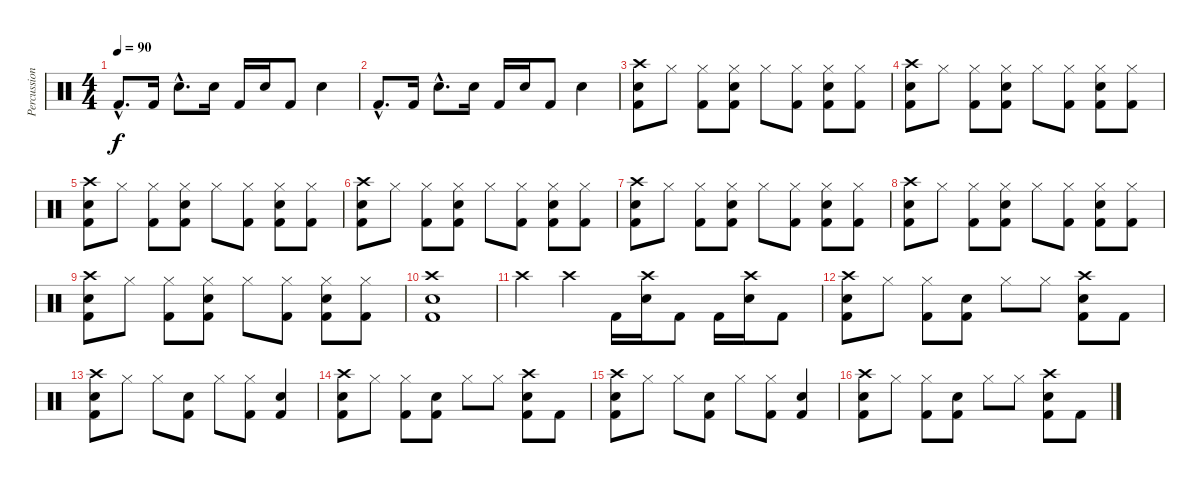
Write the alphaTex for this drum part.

\track ("Percussion" "Percussion") {instrument percussion}
\staff {score}
\articulation defaults
\ts (4 4)
\tempo 90
\clef neutral
\ks c "Kick (hit) 2"{hac}.8{d dy f} "Kick (hit) 2".16 "Snare (hit) 2"{hac}.8{d} "Snare (hit) 2".16 "Kick (hit) 2".16 "Snare (hit) 2".16 "Kick (hit) 2".8 "Snare (hit) 2".4
|
"Kick (hit) 2"{hac}.8{d} "Kick (hit) 2".16 "Snare (hit) 2"{hac}.8{d} "Snare (hit) 2".16 "Kick (hit) 2".16 "Snare (hit) 2".16 "Kick (hit) 2".8 "Snare (hit) 2".4 |
("Snare (hit) 2" "Crash high (hit)" "Kick (hit) 2").8 "Hi-Hat (closed)".8 ("Hi-Hat (closed)" "Kick (hit) 2").8 ("Hi-Hat (closed)" "Snare (hit) 2" "Kick (hit) 2").8 "Hi-Hat (closed)".8 ("Hi-Hat (closed)" "Kick (hit) 2").8 ("Hi-Hat (closed)" "Snare (hit) 2" "Kick (hit) 2").8 ("Hi-Hat (closed)" "Kick (hit) 2").8 |
("Snare (hit) 2" "Crash high (hit)" "Kick (hit) 2").8 "Hi-Hat (closed)".8 ("Hi-Hat (closed)" "Kick (hit) 2").8 ("Hi-Hat (closed)" "Snare (hit) 2" "Kick (hit) 2").8 "Hi-Hat (closed)".8 ("Hi-Hat (closed)" "Kick (hit) 2").8 ("Hi-Hat (closed)" "Snare (hit) 2" "Kick (hit) 2").8 ("Hi-Hat (closed)" "Kick (hit) 2").8 |
("Snare (hit) 2" "Crash high (hit)" "Kick (hit) 2").8 "Hi-Hat (closed)".8 ("Hi-Hat (closed)" "Kick (hit) 2").8 ("Hi-Hat (closed)" "Snare (hit) 2" "Kick (hit) 2").8 "Hi-Hat (closed)".8 ("Hi-Hat (closed)" "Kick (hit) 2").8 ("Hi-Hat (closed)" "Snare (hit) 2" "Kick (hit) 2").8 ("Hi-Hat (closed)" "Kick (hit) 2").8 |
("Snare (hit) 2" "Crash high (hit)" "Kick (hit) 2").8 "Hi-Hat (closed)".8 ("Hi-Hat (closed)" "Kick (hit) 2").8 ("Hi-Hat (closed)" "Snare (hit) 2" "Kick (hit) 2").8 "Hi-Hat (closed)".8 ("Hi-Hat (closed)" "Kick (hit) 2").8 ("Hi-Hat (closed)" "Snare (hit) 2" "Kick (hit) 2").8 ("Hi-Hat (closed)" "Kick (hit) 2").8 |
("Snare (hit) 2" "Crash high (hit)" "Kick (hit) 2").8 "Hi-Hat (closed)".8 ("Hi-Hat (closed)" "Kick (hit) 2").8 ("Hi-Hat (closed)" "Snare (hit) 2" "Kick (hit) 2").8 "Hi-Hat (closed)".8 ("Hi-Hat (closed)" "Kick (hit) 2").8 ("Hi-Hat (closed)" "Snare (hit) 2" "Kick (hit) 2").8 ("Hi-Hat (closed)" "Kick (hit) 2").8 |
("Snare (hit) 2" "Crash high (hit)" "Kick (hit) 2").8 "Hi-Hat (closed)".8 ("Hi-Hat (closed)" "Kick (hit) 2").8 ("Hi-Hat (closed)" "Snare (hit) 2" "Kick (hit) 2").8 "Hi-Hat (closed)".8 ("Hi-Hat (closed)" "Kick (hit) 2").8 ("Hi-Hat (closed)" "Snare (hit) 2" "Kick (hit) 2").8 ("Hi-Hat (closed)" "Kick (hit) 2").8 |
("Snare (hit) 2" "Crash high (hit)" "Kick (hit) 2").8 "Hi-Hat (closed)".8 ("Hi-Hat (closed)" "Kick (hit) 2").8 ("Hi-Hat (closed)" "Snare (hit) 2" "Kick (hit) 2").8 "Hi-Hat (closed)".8 ("Hi-Hat (closed)" "Kick (hit) 2").8 ("Hi-Hat (closed)" "Snare (hit) 2" "Kick (hit) 2").8 ("Hi-Hat (closed)" "Kick (hit) 2").8 |
("Crash high (hit)" "Snare (hit) 2" "Kick (hit) 2").1 |
"Crash high (hit)".4 "Crash high (hit)".4 "Kick (hit) 2".16 ("Crash high (hit)" "Snare (hit) 2").16 "Kick (hit) 2".8 "Kick (hit) 2".16 ("Crash high (hit)" "Snare (hit) 2").16 "Kick (hit) 2".8 |
("Crash high (hit)" "Kick (hit) 2" "Snare (hit) 2").8 "Hi-Hat (closed)".8 ("Kick (hit) 2" "Hi-Hat (closed)").8 ("Kick (hit) 2" "Snare (hit) 2").8 "Hi-Hat (closed)".8 "Hi-Hat (closed)".8 ("Crash high (hit)" "Kick (hit) 2" "Snare (hit) 2").8 "Kick (hit) 2".8 |
("Crash high (hit)" "Kick (hit) 2" "Snare (hit) 2").8 "Hi-Hat (closed)".8 "Hi-Hat (closed)".8 ("Kick (hit) 2" "Snare (hit) 2").8 "Hi-Hat (closed)".8 ("Kick (hit) 2" "Hi-Hat (closed)").8 ("Kick (hit) 2" "Snare (hit) 2").4 |
("Crash high (hit)" "Kick (hit) 2" "Snare (hit) 2").8 "Hi-Hat (closed)".8 ("Kick (hit) 2" "Hi-Hat (closed)").8 ("Kick (hit) 2" "Snare (hit) 2").8 "Hi-Hat (closed)".8 "Hi-Hat (closed)".8 ("Crash high (hit)" "Kick (hit) 2" "Snare (hit) 2").8 "Kick (hit) 2".8 |
("Crash high (hit)" "Kick (hit) 2" "Snare (hit) 2").8 "Hi-Hat (closed)".8 "Hi-Hat (closed)".8 ("Kick (hit) 2" "Snare (hit) 2").8 "Hi-Hat (closed)".8 ("Kick (hit) 2" "Hi-Hat (closed)").8 ("Kick (hit) 2" "Snare (hit) 2").4 |
("Crash high (hit)" "Kick (hit) 2" "Snare (hit) 2").8 "Hi-Hat (closed)".8 ("Kick (hit) 2" "Hi-Hat (closed)").8 ("Kick (hit) 2" "Snare (hit) 2").8 "Hi-Hat (closed)".8 "Hi-Hat (closed)".8 ("Crash high (hit)" "Kick (hit) 2" "Snare (hit) 2").8 "Kick (hit) 2".8
